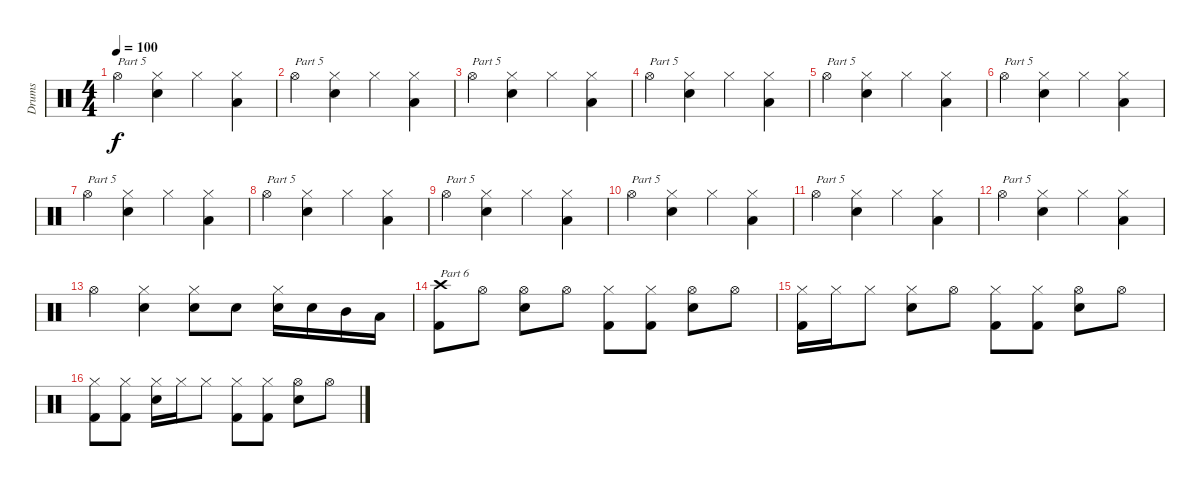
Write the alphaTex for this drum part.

\track ("Drums" "Drums") {instrument percussion}
\staff {score}
\articulation defaults
\ts (4 4)
\tempo 100
\clef neutral
\ks c "Hi-Hat (open)".4{txt "Part 5" dy f}
("Hi-Hat (closed)" "Snare (hit) 2").4 "Hi-Hat (closed)".4 ("Hi-Hat (closed)" "Low Floor Tom (hit)").4 |
"Hi-Hat (open)".4{txt "Part 5"} ("Hi-Hat (closed)" "Snare (hit) 2").4 "Hi-Hat (closed)".4 ("Hi-Hat (closed)" "Low Floor Tom (hit)").4 |
"Hi-Hat (open)".4{txt "Part 5"} ("Hi-Hat (closed)" "Snare (hit) 2").4 "Hi-Hat (closed)".4 ("Hi-Hat (closed)" "Low Floor Tom (hit)").4 |
"Hi-Hat (open)".4{txt "Part 5"} ("Hi-Hat (closed)" "Snare (hit) 2").4 "Hi-Hat (closed)".4 ("Hi-Hat (closed)" "Low Floor Tom (hit)").4 |
"Hi-Hat (open)".4{txt "Part 5"} ("Hi-Hat (closed)" "Snare (hit) 2").4 "Hi-Hat (closed)".4 ("Hi-Hat (closed)" "Low Floor Tom (hit)").4 |
"Hi-Hat (open)".4{txt "Part 5"} ("Hi-Hat (closed)" "Snare (hit) 2").4 "Hi-Hat (closed)".4 ("Hi-Hat (closed)" "Low Floor Tom (hit)").4 |
"Hi-Hat (open)".4{txt "Part 5"} ("Hi-Hat (closed)" "Snare (hit) 2").4 "Hi-Hat (closed)".4 ("Hi-Hat (closed)" "Low Floor Tom (hit)").4 |
"Hi-Hat (open)".4{txt "Part 5"} ("Hi-Hat (closed)" "Snare (hit) 2").4 "Hi-Hat (closed)".4 ("Hi-Hat (closed)" "Low Floor Tom (hit)").4 |
"Hi-Hat (open)".4{txt "Part 5"} ("Hi-Hat (closed)" "Snare (hit) 2").4 "Hi-Hat (closed)".4 ("Hi-Hat (closed)" "Low Floor Tom (hit)").4 |
"Hi-Hat (open)".4{txt "Part 5"} ("Hi-Hat (closed)" "Snare (hit) 2").4 "Hi-Hat (closed)".4 ("Hi-Hat (closed)" "Low Floor Tom (hit)").4 |
"Hi-Hat (open)".4{txt "Part 5"} ("Hi-Hat (closed)" "Snare (hit) 2").4 "Hi-Hat (closed)".4 ("Hi-Hat (closed)" "Low Floor Tom (hit)").4 |
"Hi-Hat (open)".4{txt "Part 5"} ("Hi-Hat (closed)" "Snare (hit) 2").4 "Hi-Hat (closed)".4 ("Hi-Hat (closed)" "Low Floor Tom (hit)").4 |
"Hi-Hat (open)".4 ("Hi-Hat (closed)" "Snare (hit) 2").4 ("Hi-Hat (closed)" "Snare (hit) 2").8 "Snare (hit) 2".8 ("Hi-Hat (closed)" "Snare (hit) 2").16 "Snare (hit) 2".16 "Mid Tom (hit)".16 "Low Floor Tom (hit)".16 |
("Crash high (hit)" "Kick (hit) 2").8{txt "Part 6"} "Hi-Hat (open)".8 ("Hi-Hat (open)" "Snare (hit) 2").8 "Hi-Hat (open)".8 ("Hi-Hat (closed)" "Kick (hit) 2").8 ("Hi-Hat (closed)" "Kick (hit) 2").8 ("Hi-Hat (open)" "Snare (hit) 2").8 "Hi-Hat (open)".8 |
("Hi-Hat (closed)" "Kick (hit) 2").16 "Hi-Hat (closed)".16 "Hi-Hat (closed)".8 ("Hi-Hat (closed)" "Snare (hit) 2").8 "Hi-Hat (open)".8 ("Hi-Hat (closed)" "Kick (hit) 2").8 ("Hi-Hat (closed)" "Kick (hit) 2").8 ("Hi-Hat (open)" "Snare (hit) 2").8 "Hi-Hat (open)".8 |
("Hi-Hat (closed)" "Kick (hit) 2").8 ("Hi-Hat (closed)" "Kick (hit) 2").8 ("Hi-Hat (closed)" "Snare (hit) 2").16 "Hi-Hat (closed)".16 "Hi-Hat (closed)".8 ("Hi-Hat (closed)" "Kick (hit) 2").8 ("Hi-Hat (closed)" "Kick (hit) 2").8 ("Hi-Hat (open)" "Snare (hit) 2").8 "Hi-Hat (open)".8
